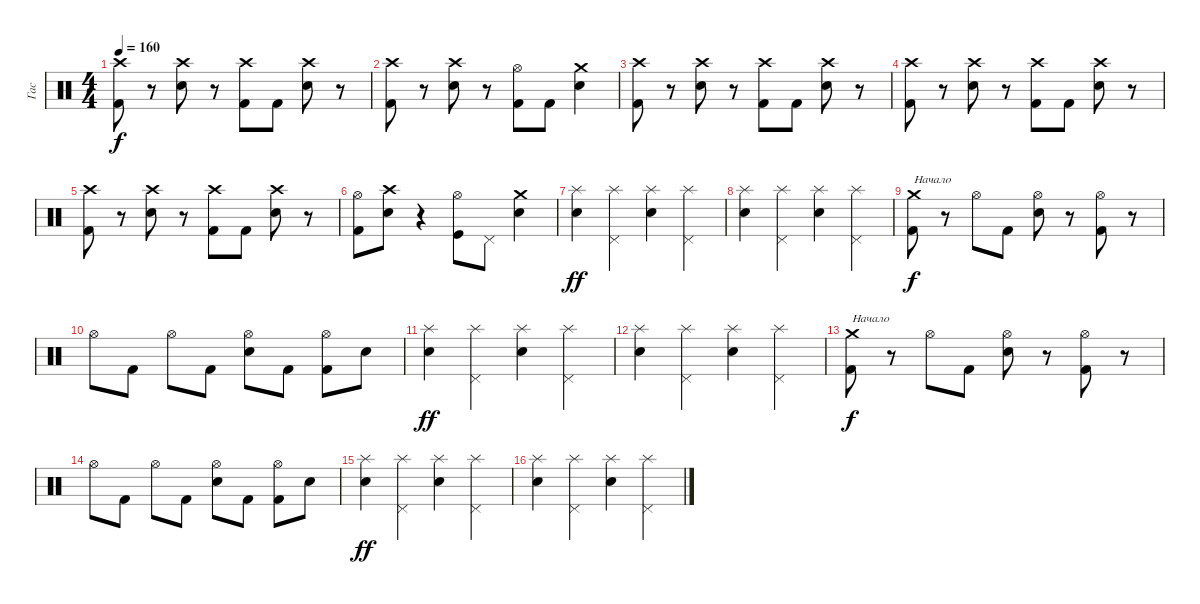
\track ("Гас" "Гас") {instrument percussion}
\staff {score}
\articulation defaults
\ts (4 4)
\tempo 160
\clef neutral
\ks c
("Crash high (hit)" "Kick (hit) 2").8{dy f} r.8 ("Crash high (hit)" "Electric Snare (hit)").8 r.8 ("Crash high (hit)" "Kick (hit) 2").8 "Kick (hit) 2".8 ("Crash high (hit)" "Electric Snare (hit)").8 r.8 |
("Crash high (hit)" "Kick (hit) 2").8 r.8 ("Crash high (hit)" "Electric Snare (hit)").8 r.8 ("Hi-Hat (open)" "Kick (hit) 2").8 "Kick (hit) 2".8 ("Crash medium (hit)" "Electric Snare (hit)").4 |
("Crash high (hit)" "Kick (hit) 2").8 r.8 ("Crash high (hit)" "Electric Snare (hit)").8 r.8 ("Crash high (hit)" "Kick (hit) 2").8 "Kick (hit) 2".8 ("Crash high (hit)" "Electric Snare (hit)").8 r.8 |
("Crash high (hit)" "Kick (hit) 2").8 r.8 ("Crash high (hit)" "Electric Snare (hit)").8 r.8 ("Crash high (hit)" "Kick (hit) 2").8 "Kick (hit) 2".8 ("Crash high (hit)" "Electric Snare (hit)").8 r.8 |
("Crash high (hit)" "Kick (hit) 2").8 r.8 ("Crash high (hit)" "Electric Snare (hit)").8 r.8 ("Crash high (hit)" "Kick (hit) 2").8 "Kick (hit) 2".8 ("Crash high (hit)" "Electric Snare (hit)").8 r.8 |
("Hi-Hat (open)" "Kick (hit) 2").8 ("Crash high (hit)" "Electric Snare (hit)").8 r.4 ("Hi-Hat (open)" "Kick (hit)").8 "Pedal Hi-Hat (hit)".8 ("Crash medium (hit)" "Electric Snare (hit)").4 |
("Splash (hit)" "Electric Snare (hit)").4{dy ff} ("Splash (hit)" "Pedal Hi-Hat (hit)").4 ("Splash (hit)" "Electric Snare (hit)").4 ("Splash (hit)" "Pedal Hi-Hat (hit)").4 |
("Splash (hit)" "Electric Snare (hit)").4 ("Splash (hit)" "Pedal Hi-Hat (hit)").4 ("Splash (hit)" "Electric Snare (hit)").4 ("Splash (hit)" "Pedal Hi-Hat (hit)").4 |
("Crash medium (hit)" "Kick (hit) 2").8{txt "Начало" dy f} r.8 "Hi-Hat (open)".8 "Kick (hit) 2".8 ("Hi-Hat (open)" "Electric Snare (hit)").8 r.8 ("Hi-Hat (open)" "Kick (hit) 2").8 r.8 |
"Hi-Hat (open)".8 "Kick (hit) 2".8 "Hi-Hat (open)".8 "Kick (hit) 2".8 ("Hi-Hat (open)" "Electric Snare (hit)").8 "Kick (hit) 2".8 ("Hi-Hat (open)" "Kick (hit) 2").8 "Electric Snare (hit)".8 |
("Splash (hit)" "Electric Snare (hit)").4{dy ff} ("Splash (hit)" "Pedal Hi-Hat (hit)").4 ("Splash (hit)" "Electric Snare (hit)").4 ("Splash (hit)" "Pedal Hi-Hat (hit)").4 |
("Splash (hit)" "Electric Snare (hit)").4 ("Splash (hit)" "Pedal Hi-Hat (hit)").4 ("Splash (hit)" "Electric Snare (hit)").4 ("Splash (hit)" "Pedal Hi-Hat (hit)").4 |
("Crash medium (hit)" "Kick (hit) 2").8{txt "Начало" dy f} r.8 "Hi-Hat (open)".8 "Kick (hit) 2".8 ("Hi-Hat (open)" "Electric Snare (hit)").8 r.8 ("Hi-Hat (open)" "Kick (hit) 2").8 r.8 |
"Hi-Hat (open)".8 "Kick (hit) 2".8 "Hi-Hat (open)".8 "Kick (hit) 2".8 ("Hi-Hat (open)" "Electric Snare (hit)").8 "Kick (hit) 2".8 ("Hi-Hat (open)" "Kick (hit) 2").8 "Electric Snare (hit)".8 |
("Splash (hit)" "Electric Snare (hit)").4{dy ff} ("Splash (hit)" "Pedal Hi-Hat (hit)").4 ("Splash (hit)" "Electric Snare (hit)").4 ("Splash (hit)" "Pedal Hi-Hat (hit)").4 |
("Splash (hit)" "Electric Snare (hit)").4 ("Splash (hit)" "Pedal Hi-Hat (hit)").4 ("Splash (hit)" "Electric Snare (hit)").4 ("Splash (hit)" "Pedal Hi-Hat (hit)").4
